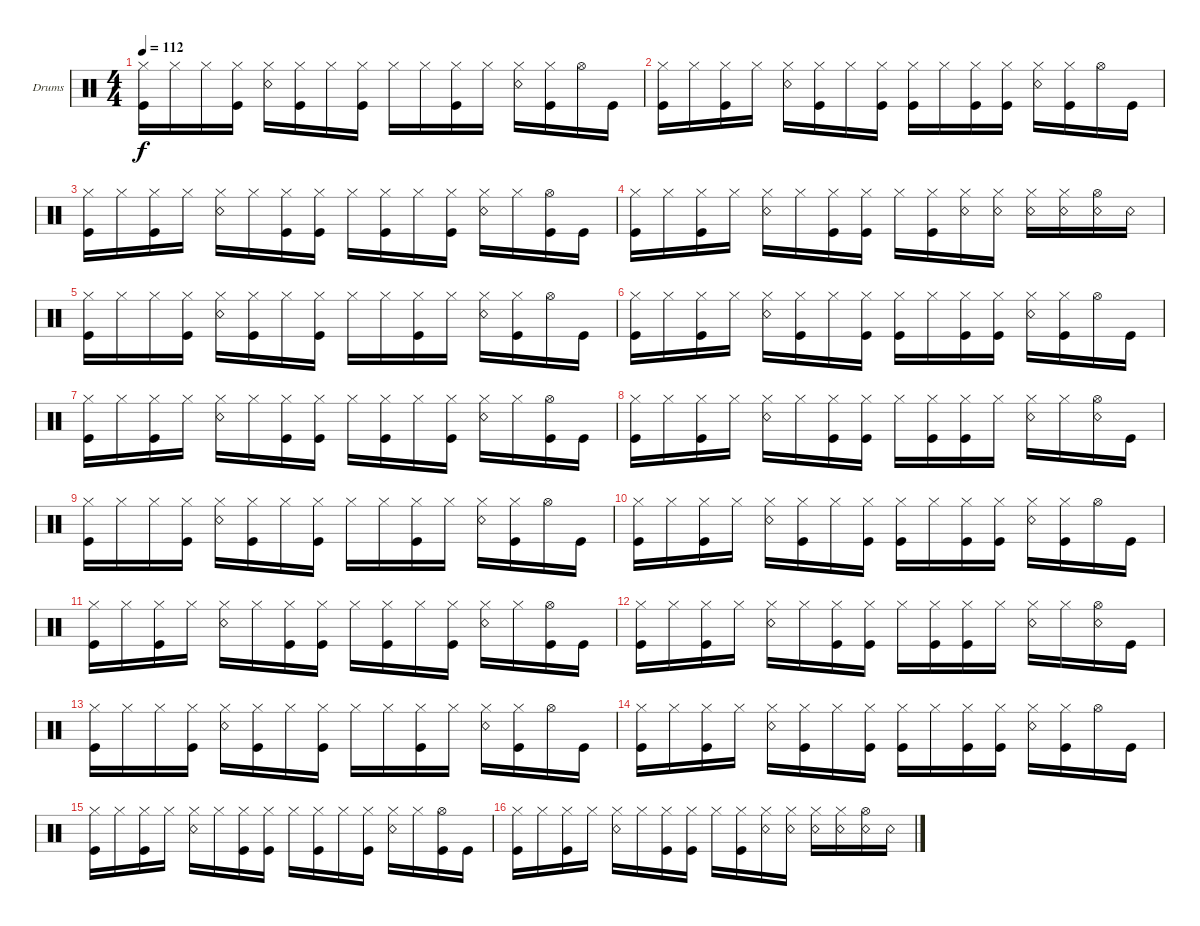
\defaultSystemsLayout 4
\bracketExtendMode groupsimilarinstruments
\firstSystemTrackNameOrientation horizontal
\otherSystemsTrackNameOrientation horizontal
\track ("Drumkit" "Drums") {instrument percussion}
\staff {score}
\articulation defaults
\ts (4 4)
\tempo 112
\clef neutral
\ks c
("Hi-Hat (closed)" "Kick (hit)").16{dy f} "Hi-Hat (closed)".16 "Hi-Hat (closed)".16 ("Hi-Hat (closed)" "Kick (hit)").16 ("Hi-Hat (closed)" "Snare (rim shot)").16 ("Hi-Hat (closed)" "Kick (hit)").16 "Hi-Hat (closed)".16 ("Hi-Hat (closed)" "Kick (hit)").16 "Hi-Hat (closed)".16 "Hi-Hat (closed)".16 ("Hi-Hat (closed)" "Kick (hit)").16 "Hi-Hat (closed)".16 ("Hi-Hat (closed)" "Snare (rim shot)").16 ("Hi-Hat (closed)" "Kick (hit)").16 "Hi-Hat (open)".16 "Kick (hit)".16 |
("Hi-Hat (closed)" "Kick (hit)").16 "Hi-Hat (closed)".16 ("Hi-Hat (closed)" "Kick (hit)").16 "Hi-Hat (closed)".16 ("Hi-Hat (closed)" "Snare (rim shot)").16 ("Hi-Hat (closed)" "Kick (hit)").16 "Hi-Hat (closed)".16 ("Hi-Hat (closed)" "Kick (hit)").16 ("Hi-Hat (closed)" "Kick (hit)").16 "Hi-Hat (closed)".16 ("Hi-Hat (closed)" "Kick (hit)").16 ("Hi-Hat (closed)" "Kick (hit)").16 ("Hi-Hat (closed)" "Snare (rim shot)").16 ("Hi-Hat (closed)" "Kick (hit)").16 "Hi-Hat (open)".16 "Kick (hit)".16 |
("Hi-Hat (closed)" "Kick (hit)").16 "Hi-Hat (closed)".16 ("Hi-Hat (closed)" "Kick (hit)").16 "Hi-Hat (closed)".16 ("Hi-Hat (closed)" "Snare (rim shot)").16 "Hi-Hat (closed)".16 ("Hi-Hat (closed)" "Kick (hit)").16 ("Hi-Hat (closed)" "Kick (hit)").16 "Hi-Hat (closed)".16 ("Hi-Hat (closed)" "Kick (hit)").16 "Hi-Hat (closed)".16 ("Hi-Hat (closed)" "Kick (hit)").16 ("Hi-Hat (closed)" "Snare (rim shot)").16 "Hi-Hat (closed)".16 ("Hi-Hat (open)" "Kick (hit)").16 "Kick (hit)".16 |
("Hi-Hat (closed)" "Kick (hit)").16 "Hi-Hat (closed)".16 ("Hi-Hat (closed)" "Kick (hit)").16 "Hi-Hat (closed)".16 ("Hi-Hat (closed)" "Snare (rim shot)").16 "Hi-Hat (closed)".16 ("Hi-Hat (closed)" "Kick (hit)").16 ("Hi-Hat (closed)" "Kick (hit)").16 "Hi-Hat (closed)".16 ("Hi-Hat (closed)" "Kick (hit)").16 ("Hi-Hat (closed)" "Snare (rim shot)").16 ("Hi-Hat (closed)" "Snare (rim shot)").16 ("Hi-Hat (closed)" "Snare (rim shot)").16 ("Hi-Hat (closed)" "Snare (rim shot)").16 ("Hi-Hat (open)" "Snare (rim shot)").16 "Snare (rim shot)".16 |
("Hi-Hat (closed)" "Kick (hit)").16 "Hi-Hat (closed)".16 "Hi-Hat (closed)".16 ("Hi-Hat (closed)" "Kick (hit)").16 ("Hi-Hat (closed)" "Snare (rim shot)").16 ("Hi-Hat (closed)" "Kick (hit)").16 "Hi-Hat (closed)".16 ("Hi-Hat (closed)" "Kick (hit)").16 "Hi-Hat (closed)".16 "Hi-Hat (closed)".16 ("Hi-Hat (closed)" "Kick (hit)").16 "Hi-Hat (closed)".16 ("Hi-Hat (closed)" "Snare (rim shot)").16 ("Hi-Hat (closed)" "Kick (hit)").16 "Hi-Hat (open)".16 "Kick (hit)".16 |
("Hi-Hat (closed)" "Kick (hit)").16 "Hi-Hat (closed)".16 ("Hi-Hat (closed)" "Kick (hit)").16 "Hi-Hat (closed)".16 ("Hi-Hat (closed)" "Snare (rim shot)").16 ("Hi-Hat (closed)" "Kick (hit)").16 "Hi-Hat (closed)".16 ("Hi-Hat (closed)" "Kick (hit)").16 ("Hi-Hat (closed)" "Kick (hit)").16 "Hi-Hat (closed)".16 ("Hi-Hat (closed)" "Kick (hit)").16 ("Hi-Hat (closed)" "Kick (hit)").16 ("Hi-Hat (closed)" "Snare (rim shot)").16 ("Hi-Hat (closed)" "Kick (hit)").16 "Hi-Hat (open)".16 "Kick (hit)".16 |
("Hi-Hat (closed)" "Kick (hit)").16 "Hi-Hat (closed)".16 ("Hi-Hat (closed)" "Kick (hit)").16 "Hi-Hat (closed)".16 ("Hi-Hat (closed)" "Snare (rim shot)").16 "Hi-Hat (closed)".16 ("Hi-Hat (closed)" "Kick (hit)").16 ("Hi-Hat (closed)" "Kick (hit)").16 "Hi-Hat (closed)".16 ("Hi-Hat (closed)" "Kick (hit)").16 "Hi-Hat (closed)".16 ("Hi-Hat (closed)" "Kick (hit)").16 ("Hi-Hat (closed)" "Snare (rim shot)").16 "Hi-Hat (closed)".16 ("Hi-Hat (open)" "Kick (hit)").16 "Kick (hit)".16 |
("Hi-Hat (closed)" "Kick (hit)").16 "Hi-Hat (closed)".16 ("Hi-Hat (closed)" "Kick (hit)").16 "Hi-Hat (closed)".16 ("Hi-Hat (closed)" "Snare (rim shot)").16 "Hi-Hat (closed)".16 ("Hi-Hat (closed)" "Kick (hit)").16 ("Hi-Hat (closed)" "Kick (hit)").16 "Hi-Hat (closed)".16 ("Hi-Hat (closed)" "Kick (hit)").16 ("Hi-Hat (closed)" "Kick (hit)").16 "Hi-Hat (closed)".16 ("Hi-Hat (closed)" "Snare (rim shot)").16 "Hi-Hat (closed)".16 ("Hi-Hat (open)" "Snare (rim shot)").16 "Kick (hit)".16 |
("Hi-Hat (closed)" "Kick (hit)").16 "Hi-Hat (closed)".16 "Hi-Hat (closed)".16 ("Hi-Hat (closed)" "Kick (hit)").16 ("Hi-Hat (closed)" "Snare (rim shot)").16 ("Hi-Hat (closed)" "Kick (hit)").16 "Hi-Hat (closed)".16 ("Hi-Hat (closed)" "Kick (hit)").16 "Hi-Hat (closed)".16 "Hi-Hat (closed)".16 ("Hi-Hat (closed)" "Kick (hit)").16 "Hi-Hat (closed)".16 ("Hi-Hat (closed)" "Snare (rim shot)").16 ("Hi-Hat (closed)" "Kick (hit)").16 "Hi-Hat (open)".16 "Kick (hit)".16 |
("Hi-Hat (closed)" "Kick (hit)").16 "Hi-Hat (closed)".16 ("Hi-Hat (closed)" "Kick (hit)").16 "Hi-Hat (closed)".16 ("Hi-Hat (closed)" "Snare (rim shot)").16 ("Hi-Hat (closed)" "Kick (hit)").16 "Hi-Hat (closed)".16 ("Hi-Hat (closed)" "Kick (hit)").16 ("Hi-Hat (closed)" "Kick (hit)").16 "Hi-Hat (closed)".16 ("Hi-Hat (closed)" "Kick (hit)").16 ("Hi-Hat (closed)" "Kick (hit)").16 ("Hi-Hat (closed)" "Snare (rim shot)").16 ("Hi-Hat (closed)" "Kick (hit)").16 "Hi-Hat (open)".16 "Kick (hit)".16 |
("Hi-Hat (closed)" "Kick (hit)").16 "Hi-Hat (closed)".16 ("Hi-Hat (closed)" "Kick (hit)").16 "Hi-Hat (closed)".16 ("Hi-Hat (closed)" "Snare (rim shot)").16 "Hi-Hat (closed)".16 ("Hi-Hat (closed)" "Kick (hit)").16 ("Hi-Hat (closed)" "Kick (hit)").16 "Hi-Hat (closed)".16 ("Hi-Hat (closed)" "Kick (hit)").16 "Hi-Hat (closed)".16 ("Hi-Hat (closed)" "Kick (hit)").16 ("Hi-Hat (closed)" "Snare (rim shot)").16 "Hi-Hat (closed)".16 ("Hi-Hat (open)" "Kick (hit)").16 "Kick (hit)".16 |
("Hi-Hat (closed)" "Kick (hit)").16 "Hi-Hat (closed)".16 ("Hi-Hat (closed)" "Kick (hit)").16 "Hi-Hat (closed)".16 ("Hi-Hat (closed)" "Snare (rim shot)").16 "Hi-Hat (closed)".16 ("Hi-Hat (closed)" "Kick (hit)").16 ("Hi-Hat (closed)" "Kick (hit)").16 "Hi-Hat (closed)".16 ("Hi-Hat (closed)" "Kick (hit)").16 ("Hi-Hat (closed)" "Kick (hit)").16 "Hi-Hat (closed)".16 ("Hi-Hat (closed)" "Snare (rim shot)").16 "Hi-Hat (closed)".16 ("Hi-Hat (open)" "Snare (rim shot)").16 "Kick (hit)".16 |
("Hi-Hat (closed)" "Kick (hit)").16 "Hi-Hat (closed)".16 "Hi-Hat (closed)".16 ("Hi-Hat (closed)" "Kick (hit)").16 ("Hi-Hat (closed)" "Snare (rim shot)").16 ("Hi-Hat (closed)" "Kick (hit)").16 "Hi-Hat (closed)".16 ("Hi-Hat (closed)" "Kick (hit)").16 "Hi-Hat (closed)".16 "Hi-Hat (closed)".16 ("Hi-Hat (closed)" "Kick (hit)").16 "Hi-Hat (closed)".16 ("Hi-Hat (closed)" "Snare (rim shot)").16 ("Hi-Hat (closed)" "Kick (hit)").16 "Hi-Hat (open)".16 "Kick (hit)".16 |
("Hi-Hat (closed)" "Kick (hit)").16 "Hi-Hat (closed)".16 ("Hi-Hat (closed)" "Kick (hit)").16 "Hi-Hat (closed)".16 ("Hi-Hat (closed)" "Snare (rim shot)").16 ("Hi-Hat (closed)" "Kick (hit)").16 "Hi-Hat (closed)".16 ("Hi-Hat (closed)" "Kick (hit)").16 ("Hi-Hat (closed)" "Kick (hit)").16 "Hi-Hat (closed)".16 ("Hi-Hat (closed)" "Kick (hit)").16 ("Hi-Hat (closed)" "Kick (hit)").16 ("Hi-Hat (closed)" "Snare (rim shot)").16 ("Hi-Hat (closed)" "Kick (hit)").16 "Hi-Hat (open)".16 "Kick (hit)".16 |
("Hi-Hat (closed)" "Kick (hit)").16 "Hi-Hat (closed)".16 ("Hi-Hat (closed)" "Kick (hit)").16 "Hi-Hat (closed)".16 ("Hi-Hat (closed)" "Snare (rim shot)").16 "Hi-Hat (closed)".16 ("Hi-Hat (closed)" "Kick (hit)").16 ("Hi-Hat (closed)" "Kick (hit)").16 "Hi-Hat (closed)".16 ("Hi-Hat (closed)" "Kick (hit)").16 "Hi-Hat (closed)".16 ("Hi-Hat (closed)" "Kick (hit)").16 ("Hi-Hat (closed)" "Snare (rim shot)").16 "Hi-Hat (closed)".16 ("Hi-Hat (open)" "Kick (hit)").16 "Kick (hit)".16 |
("Hi-Hat (closed)" "Kick (hit)").16 "Hi-Hat (closed)".16 ("Hi-Hat (closed)" "Kick (hit)").16 "Hi-Hat (closed)".16 ("Hi-Hat (closed)" "Snare (rim shot)").16 "Hi-Hat (closed)".16 ("Hi-Hat (closed)" "Kick (hit)").16 ("Hi-Hat (closed)" "Kick (hit)").16 "Hi-Hat (closed)".16 ("Hi-Hat (closed)" "Kick (hit)").16 ("Hi-Hat (closed)" "Snare (rim shot)").16 ("Hi-Hat (closed)" "Snare (rim shot)").16 ("Hi-Hat (closed)" "Snare (rim shot)").16 ("Hi-Hat (closed)" "Snare (rim shot)").16 ("Hi-Hat (open)" "Snare (rim shot)").16 "Snare (rim shot)".16
